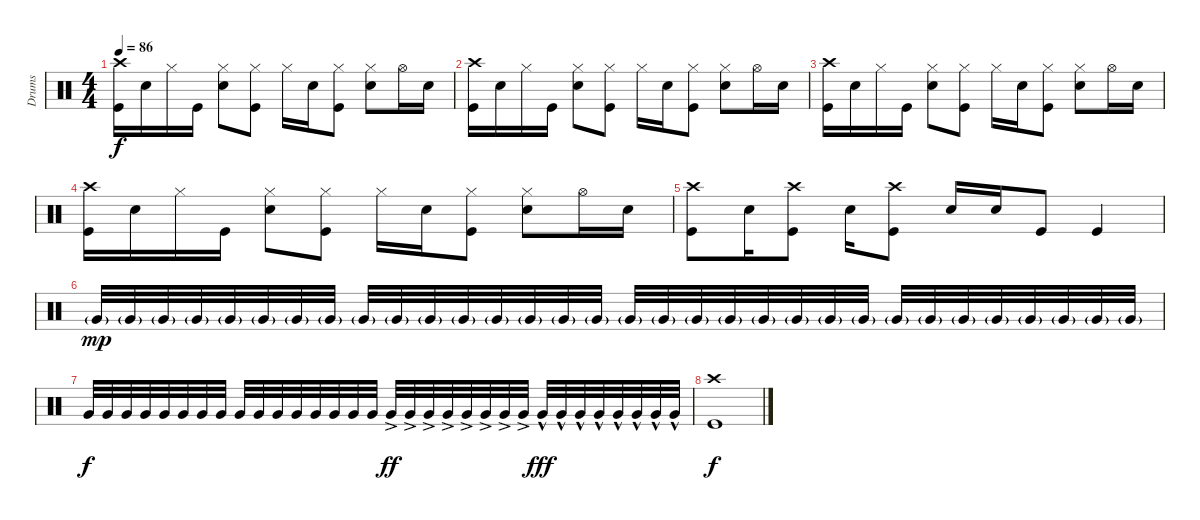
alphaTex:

\track ("Drums" "Drums") {instrument percussion}
\staff {score}
\articulation defaults
\ts (4 4)
\tempo 86
\clef neutral
\ks c
("Crash high (hit)" "Kick (hit)").16{dy f} "Snare (hit) 2".16 "Hi-Hat (closed)".16 "Kick (hit)".16 ("Hi-Hat (closed)" "Snare (hit) 2").8 ("Hi-Hat (closed)" "Kick (hit)").8 "Hi-Hat (closed)".16 "Snare (hit) 2".16 ("Hi-Hat (closed)" "Kick (hit)").8 ("Hi-Hat (closed)" "Snare (hit) 2").8 "Hi-Hat (open)".16 "Snare (hit) 2".16 |
("Crash high (hit)" "Kick (hit)").16 "Snare (hit) 2".16 "Hi-Hat (closed)".16 "Kick (hit)".16 ("Hi-Hat (closed)" "Snare (hit) 2").8 ("Hi-Hat (closed)" "Kick (hit)").8 "Hi-Hat (closed)".16 "Snare (hit) 2".16 ("Hi-Hat (closed)" "Kick (hit)").8 ("Hi-Hat (closed)" "Snare (hit) 2").8 "Hi-Hat (open)".16 "Snare (hit) 2".16 |
("Crash high (hit)" "Kick (hit)").16 "Snare (hit) 2".16 "Hi-Hat (closed)".16 "Kick (hit)".16 ("Hi-Hat (closed)" "Snare (hit) 2").8 ("Hi-Hat (closed)" "Kick (hit)").8 "Hi-Hat (closed)".16 "Snare (hit) 2".16 ("Hi-Hat (closed)" "Kick (hit)").8 ("Hi-Hat (closed)" "Snare (hit) 2").8 "Hi-Hat (open)".16 "Snare (hit) 2".16 |
("Crash high (hit)" "Kick (hit)").16 "Snare (hit) 2".16 "Hi-Hat (closed)".16 "Kick (hit)".16 ("Hi-Hat (closed)" "Snare (hit) 2").8 ("Hi-Hat (closed)" "Kick (hit)").8 "Hi-Hat (closed)".16 "Snare (hit) 2".16 ("Hi-Hat (closed)" "Kick (hit)").8 ("Hi-Hat (closed)" "Snare (hit) 2").8 "Hi-Hat (open)".16 "Snare (hit) 2".16 |
("Crash high (hit)" "Kick (hit)").8 "Snare (hit) 2".16 ("Crash high (hit)" "Kick (hit)").8 "Snare (hit) 2".16 ("Crash high (hit)" "Kick (hit)").8 "Snare (hit) 2".16 "Snare (hit) 2".16 "Kick (hit)".8 "Kick (hit)".4 |
"Very Low Tom (hit)"{g}.32{dy mp} "Very Low Tom (hit)"{g}.32 "Very Low Tom (hit)"{g}.32 "Very Low Tom (hit)"{g}.32 "Very Low Tom (hit)"{g}.32 "Very Low Tom (hit)"{g}.32 "Very Low Tom (hit)"{g}.32 "Very Low Tom (hit)"{g}.32 "Very Low Tom (hit)"{g}.32 "Very Low Tom (hit)"{g}.32 "Very Low Tom (hit)"{g}.32 "Very Low Tom (hit)"{g}.32 "Very Low Tom (hit)"{g}.32 "Very Low Tom (hit)"{g}.32 "Very Low Tom (hit)"{g}.32 "Very Low Tom (hit)"{g}.32 "Very Low Tom (hit)"{g}.32 "Very Low Tom (hit)"{g}.32 "Very Low Tom (hit)"{g}.32 "Very Low Tom (hit)"{g}.32 "Very Low Tom (hit)"{g}.32 "Very Low Tom (hit)"{g}.32 "Very Low Tom (hit)"{g}.32 "Very Low Tom (hit)"{g}.32 "Very Low Tom (hit)"{g}.32 "Very Low Tom (hit)"{g}.32 "Very Low Tom (hit)"{g}.32 "Very Low Tom (hit)"{g}.32 "Very Low Tom (hit)"{g}.32 "Very Low Tom (hit)"{g}.32 "Very Low Tom (hit)"{g}.32 "Very Low Tom (hit)"{g}.32 |
"Very Low Tom (hit)".32{dy f} "Very Low Tom (hit)".32 "Very Low Tom (hit)".32 "Very Low Tom (hit)".32 "Very Low Tom (hit)".32 "Very Low Tom (hit)".32 "Very Low Tom (hit)".32 "Very Low Tom (hit)".32 "Very Low Tom (hit)".32 "Very Low Tom (hit)".32 "Very Low Tom (hit)".32 "Very Low Tom (hit)".32 "Very Low Tom (hit)".32 "Very Low Tom (hit)".32 "Very Low Tom (hit)".32 "Very Low Tom (hit)".32 "Very Low Tom (hit)"{ac}.32{dy ff} "Very Low Tom (hit)"{ac}.32 "Very Low Tom (hit)"{ac}.32 "Very Low Tom (hit)"{ac}.32 "Very Low Tom (hit)"{ac}.32 "Very Low Tom (hit)"{ac}.32 "Very Low Tom (hit)"{ac}.32 "Very Low Tom (hit)"{ac}.32 "Very Low Tom (hit)"{hac}.32{dy fff} "Very Low Tom (hit)"{hac}.32 "Very Low Tom (hit)"{hac}.32 "Very Low Tom (hit)"{hac}.32 "Very Low Tom (hit)"{hac}.32 "Very Low Tom (hit)"{hac}.32 "Very Low Tom (hit)"{hac}.32 "Very Low Tom (hit)"{hac}.32 |
("Crash high (hit)" "Kick (hit)").1{dy f}
